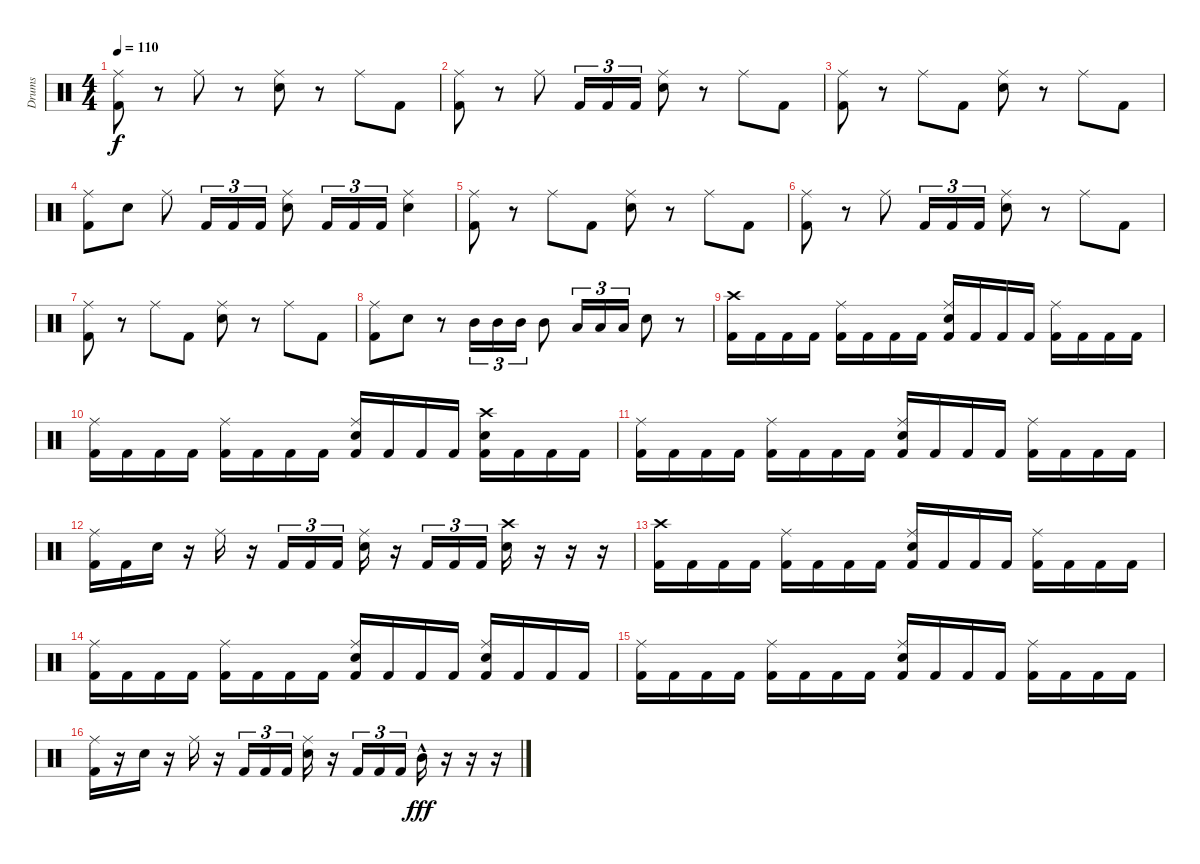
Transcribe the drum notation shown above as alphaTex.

\track ("Drums" "Drums") {instrument percussion}
\staff {score}
\articulation defaults
\ts (4 4)
\tempo 110
\clef neutral
\ks aminor
("Kick (hit) 2" "Ride (middle)").8{dy f} r.8 "Ride (middle)".8 r.8 ("Electric Snare (hit)" "Ride (middle)").8 r.8 "Ride (middle)".8 "Kick (hit) 2".8 |
("Kick (hit) 2" "Ride (middle)").8 r.8 "Ride (middle)".8 "Kick (hit) 2".16{tu (3 2)} "Kick (hit) 2".16{tu (3 2)} "Kick (hit) 2".16{tu (3 2)} ("Electric Snare (hit)" "Ride (middle)").8 r.8 "Ride (middle)".8 "Kick (hit) 2".8 |
("Kick (hit) 2" "Ride (middle)").8 r.8 "Ride (middle)".8 "Kick (hit) 2".8 ("Electric Snare (hit)" "Ride (middle)").8 r.8 "Ride (middle)".8 "Kick (hit) 2".8 |
("Kick (hit) 2" "Ride (middle)").8 "Electric Snare (hit)".8 "Ride (middle)".8 "Kick (hit) 2".16{tu (3 2)} "Kick (hit) 2".16{tu (3 2)} "Kick (hit) 2".16{tu (3 2)} ("Electric Snare (hit)" "Ride (middle)").8 "Kick (hit) 2".16{tu (3 2)} "Kick (hit) 2".16{tu (3 2)} "Kick (hit) 2".16{tu (3 2)} ("Electric Snare (hit)" "Ride (middle)").4 |
("Kick (hit) 2" "Ride (middle)").8 r.8 "Ride (middle)".8 "Kick (hit) 2".8 ("Electric Snare (hit)" "Ride (middle)").8 r.8 "Ride (middle)".8 "Kick (hit) 2".8 |
("Kick (hit) 2" "Ride (middle)").8 r.8 "Ride (middle)".8 "Kick (hit) 2".16{tu (3 2)} "Kick (hit) 2".16{tu (3 2)} "Kick (hit) 2".16{tu (3 2)} ("Electric Snare (hit)" "Ride (middle)").8 r.8 "Ride (middle)".8 "Kick (hit) 2".8 |
("Kick (hit) 2" "Ride (middle)").8 r.8 "Ride (middle)".8 "Kick (hit) 2".8 ("Electric Snare (hit)" "Ride (middle)").8 r.8 "Ride (middle)".8 "Kick (hit) 2".8 |
("Kick (hit) 2" "Ride (middle)").8 "Electric Snare (hit)".8 r.8 "Mid Tom (hit)".16{tu (3 2)} "Mid Tom (hit)".16{tu (3 2)} "Mid Tom (hit)".16{tu (3 2)} "Mid Tom (hit)".8 "Low Tom (hit)".16{tu (3 2)} "Low Tom (hit)".16{tu (3 2)} "Low Tom (hit)".16{tu (3 2)} "Electric Snare (hit)".8 r.8 |
("Kick (hit) 2" "Crash high (hit)").16 "Kick (hit) 2".16 "Kick (hit) 2".16 "Kick (hit) 2".16 ("Kick (hit) 2" "Ride (middle)").16 "Kick (hit) 2".16 "Kick (hit) 2".16 "Kick (hit) 2".16 ("Kick (hit) 2" "Electric Snare (hit)" "Ride (middle)").16 "Kick (hit) 2".16 "Kick (hit) 2".16 "Kick (hit) 2".16 ("Kick (hit) 2" "Ride (middle)").16 "Kick (hit) 2".16 "Kick (hit) 2".16 "Kick (hit) 2".16 |
("Kick (hit) 2" "Ride (middle)").16 "Kick (hit) 2".16 "Kick (hit) 2".16 "Kick (hit) 2".16 ("Kick (hit) 2" "Ride (middle)").16 "Kick (hit) 2".16 "Kick (hit) 2".16 "Kick (hit) 2".16 ("Kick (hit) 2" "Electric Snare (hit)" "Ride (middle)").16 "Kick (hit) 2".16 "Kick (hit) 2".16 "Kick (hit) 2".16 ("Kick (hit) 2" "Electric Snare (hit)" "Crash high (hit)").16 "Kick (hit) 2".16 "Kick (hit) 2".16 "Kick (hit) 2".16 |
("Kick (hit) 2" "Ride (middle)").16 "Kick (hit) 2".16 "Kick (hit) 2".16 "Kick (hit) 2".16 ("Kick (hit) 2" "Ride (middle)").16 "Kick (hit) 2".16 "Kick (hit) 2".16 "Kick (hit) 2".16 ("Kick (hit) 2" "Electric Snare (hit)" "Ride (middle)").16 "Kick (hit) 2".16 "Kick (hit) 2".16 "Kick (hit) 2".16 ("Kick (hit) 2" "Ride (middle)").16 "Kick (hit) 2".16 "Kick (hit) 2".16 "Kick (hit) 2".16 |
("Kick (hit) 2" "Ride (middle)").16 "Kick (hit) 2".16 "Electric Snare (hit)".16 r.16 "Ride (middle)".16 r.16 "Kick (hit) 2".16{tu (3 2)} "Kick (hit) 2".16{tu (3 2)} "Kick (hit) 2".16{tu (3 2)} ("Electric Snare (hit)" "Ride (middle)").16 r.16 "Kick (hit) 2".16{tu (3 2)} "Kick (hit) 2".16{tu (3 2)} "Kick (hit) 2".16{tu (3 2)} ("Electric Snare (hit)" "Crash high (hit)").16 r.16 r.16 r.16 |
("Kick (hit) 2" "Crash high (hit)").16 "Kick (hit) 2".16 "Kick (hit) 2".16 "Kick (hit) 2".16 ("Kick (hit) 2" "Ride (middle)").16 "Kick (hit) 2".16 "Kick (hit) 2".16 "Kick (hit) 2".16 ("Kick (hit) 2" "Electric Snare (hit)" "Ride (middle)").16 "Kick (hit) 2".16 "Kick (hit) 2".16 "Kick (hit) 2".16 ("Kick (hit) 2" "Ride (middle)").16 "Kick (hit) 2".16 "Kick (hit) 2".16 "Kick (hit) 2".16 |
("Kick (hit) 2" "Ride (middle)").16 "Kick (hit) 2".16 "Kick (hit) 2".16 "Kick (hit) 2".16 ("Kick (hit) 2" "Ride (middle)").16 "Kick (hit) 2".16 "Kick (hit) 2".16 "Kick (hit) 2".16 ("Kick (hit) 2" "Electric Snare (hit)" "Ride (middle)").16 "Kick (hit) 2".16 "Kick (hit) 2".16 "Kick (hit) 2".16 ("Kick (hit) 2" "Electric Snare (hit)" "Ride (middle)").16 "Kick (hit) 2".16 "Kick (hit) 2".16 "Kick (hit) 2".16 |
("Kick (hit) 2" "Ride (middle)").16 "Kick (hit) 2".16 "Kick (hit) 2".16 "Kick (hit) 2".16 ("Kick (hit) 2" "Ride (middle)").16 "Kick (hit) 2".16 "Kick (hit) 2".16 "Kick (hit) 2".16 ("Kick (hit) 2" "Electric Snare (hit)" "Ride (middle)").16 "Kick (hit) 2".16 "Kick (hit) 2".16 "Kick (hit) 2".16 ("Kick (hit) 2" "Ride (middle)").16 "Kick (hit) 2".16 "Kick (hit) 2".16 "Kick (hit) 2".16 |
("Kick (hit) 2" "Ride (middle)").16 r.16 "Electric Snare (hit)".16 r.16 "Ride (middle)".16 r.16 "Kick (hit) 2".16{tu (3 2)} "Kick (hit) 2".16{tu (3 2)} "Kick (hit) 2".16{tu (3 2)} ("Electric Snare (hit)" "Ride (middle)").16 r.16 "Kick (hit) 2".16{tu (3 2)} "Kick (hit) 2".16{tu (3 2)} "Kick (hit) 2".16{tu (3 2)} "Mid Tom (hit)"{hac}.16{dy fff} r.16 r.16 r.16
